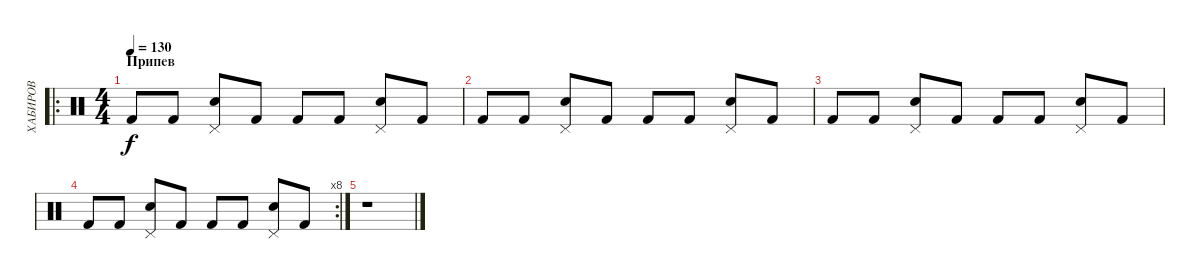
\track ("ХАБИРОВ" "ХАБИРОВ") {instrument percussion}
\staff {score}
\articulation defaults
\ro
\ts (4 4)
\section ("" "Припев")
\tempo 130
\clef neutral
\ks c "Kick (hit) 2".8{dy f} "Kick (hit) 2".8
("Snare (hit) 2" "Pedal Hi-Hat (hit)").8 "Kick (hit) 2".8 "Kick (hit) 2".8 "Kick (hit) 2".8 ("Snare (hit) 2" "Pedal Hi-Hat (hit)").8 "Kick (hit) 2".8 |
"Kick (hit) 2".8 "Kick (hit) 2".8 ("Snare (hit) 2" "Pedal Hi-Hat (hit)").8 "Kick (hit) 2".8 "Kick (hit) 2".8 "Kick (hit) 2".8 ("Snare (hit) 2" "Pedal Hi-Hat (hit)").8 "Kick (hit) 2".8 |
"Kick (hit) 2".8 "Kick (hit) 2".8 ("Snare (hit) 2" "Pedal Hi-Hat (hit)").8 "Kick (hit) 2".8 "Kick (hit) 2".8 "Kick (hit) 2".8 ("Snare (hit) 2" "Pedal Hi-Hat (hit)").8 "Kick (hit) 2".8 |
\rc 8 "Kick (hit) 2".8 "Kick (hit) 2".8
("Snare (hit) 2" "Pedal Hi-Hat (hit)").8 "Kick (hit) 2".8 "Kick (hit) 2".8 "Kick (hit) 2".8 ("Snare (hit) 2" "Pedal Hi-Hat (hit)").8 "Kick (hit) 2".8 |
r.1
